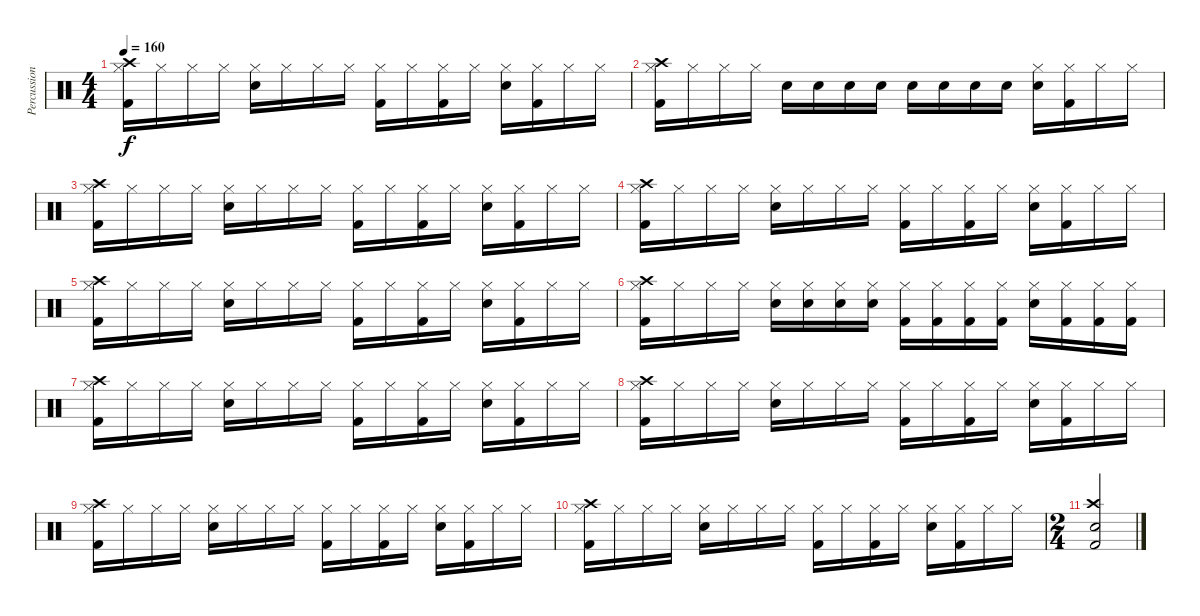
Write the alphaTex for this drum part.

\track ("Percussion" "Percussion") {instrument percussion}
\staff {score}
\articulation defaults
\ts (4 4)
\tempo 160
\clef neutral
\ks c
("Kick (hit) 2" "Hi-Hat (closed)" "Crash high (hit)").16{dy f} "Hi-Hat (closed)".16 "Hi-Hat (closed)".16 "Hi-Hat (closed)".16 ("Electric Snare (hit)" "Hi-Hat (closed)").16 "Hi-Hat (closed)".16 "Hi-Hat (closed)".16 "Hi-Hat (closed)".16 ("Kick (hit) 2" "Hi-Hat (closed)").16 "Hi-Hat (closed)".16 ("Kick (hit) 2" "Hi-Hat (closed)").16 "Hi-Hat (closed)".16 ("Electric Snare (hit)" "Hi-Hat (closed)").16 ("Kick (hit) 2" "Hi-Hat (closed)").16 "Hi-Hat (closed)".16 "Hi-Hat (closed)".16 |
("Kick (hit) 2" "Hi-Hat (closed)" "Crash high (hit)").16 "Hi-Hat (closed)".16 "Hi-Hat (closed)".16 "Hi-Hat (closed)".16 "Electric Snare (hit)".16 "Electric Snare (hit)".16 "Electric Snare (hit)".16 "Electric Snare (hit)".16 "Electric Snare (hit)".16 "Electric Snare (hit)".16 "Electric Snare (hit)".16 "Electric Snare (hit)".16 ("Electric Snare (hit)" "Hi-Hat (closed)").16 ("Kick (hit) 2" "Hi-Hat (closed)").16 "Hi-Hat (closed)".16 "Hi-Hat (closed)".16 |
("Kick (hit) 2" "Hi-Hat (closed)" "Crash high (hit)").16 "Hi-Hat (closed)".16 "Hi-Hat (closed)".16 "Hi-Hat (closed)".16 ("Electric Snare (hit)" "Hi-Hat (closed)").16 "Hi-Hat (closed)".16 "Hi-Hat (closed)".16 "Hi-Hat (closed)".16 ("Kick (hit) 2" "Hi-Hat (closed)").16 "Hi-Hat (closed)".16 ("Kick (hit) 2" "Hi-Hat (closed)").16 "Hi-Hat (closed)".16 ("Electric Snare (hit)" "Hi-Hat (closed)").16 ("Kick (hit) 2" "Hi-Hat (closed)").16 "Hi-Hat (closed)".16 "Hi-Hat (closed)".16 |
("Kick (hit) 2" "Hi-Hat (closed)" "Crash high (hit)").16 "Hi-Hat (closed)".16 "Hi-Hat (closed)".16 "Hi-Hat (closed)".16 ("Electric Snare (hit)" "Hi-Hat (closed)").16 "Hi-Hat (closed)".16 "Hi-Hat (closed)".16 "Hi-Hat (closed)".16 ("Kick (hit) 2" "Hi-Hat (closed)").16 "Hi-Hat (closed)".16 ("Kick (hit) 2" "Hi-Hat (closed)").16 "Hi-Hat (closed)".16 ("Electric Snare (hit)" "Hi-Hat (closed)").16 ("Kick (hit) 2" "Hi-Hat (closed)").16 "Hi-Hat (closed)".16 "Hi-Hat (closed)".16 |
("Kick (hit) 2" "Hi-Hat (closed)" "Crash high (hit)").16 "Hi-Hat (closed)".16 "Hi-Hat (closed)".16 "Hi-Hat (closed)".16 ("Electric Snare (hit)" "Hi-Hat (closed)").16 "Hi-Hat (closed)".16 "Hi-Hat (closed)".16 "Hi-Hat (closed)".16 ("Kick (hit) 2" "Hi-Hat (closed)").16 "Hi-Hat (closed)".16 ("Kick (hit) 2" "Hi-Hat (closed)").16 "Hi-Hat (closed)".16 ("Electric Snare (hit)" "Hi-Hat (closed)").16 ("Kick (hit) 2" "Hi-Hat (closed)").16 "Hi-Hat (closed)".16 "Hi-Hat (closed)".16 |
("Kick (hit) 2" "Hi-Hat (closed)" "Crash high (hit)").16 "Hi-Hat (closed)".16 "Hi-Hat (closed)".16 "Hi-Hat (closed)".16 ("Electric Snare (hit)" "Hi-Hat (closed)").16 ("Electric Snare (hit)" "Hi-Hat (closed)").16 ("Electric Snare (hit)" "Hi-Hat (closed)").16 ("Electric Snare (hit)" "Hi-Hat (closed)").16 ("Kick (hit) 2" "Hi-Hat (closed)").16 ("Kick (hit) 2" "Hi-Hat (closed)").16 ("Kick (hit) 2" "Hi-Hat (closed)").16 ("Kick (hit) 2" "Hi-Hat (closed)").16 ("Electric Snare (hit)" "Hi-Hat (closed)").16 ("Kick (hit) 2" "Hi-Hat (closed)").16 ("Kick (hit) 2" "Hi-Hat (closed)").16 ("Kick (hit) 2" "Hi-Hat (closed)").16 |
("Kick (hit) 2" "Hi-Hat (closed)" "Crash high (hit)").16 "Hi-Hat (closed)".16 "Hi-Hat (closed)".16 "Hi-Hat (closed)".16 ("Electric Snare (hit)" "Hi-Hat (closed)").16 "Hi-Hat (closed)".16 "Hi-Hat (closed)".16 "Hi-Hat (closed)".16 ("Kick (hit) 2" "Hi-Hat (closed)").16 "Hi-Hat (closed)".16 ("Kick (hit) 2" "Hi-Hat (closed)").16 "Hi-Hat (closed)".16 ("Electric Snare (hit)" "Hi-Hat (closed)").16 ("Kick (hit) 2" "Hi-Hat (closed)").16 "Hi-Hat (closed)".16 "Hi-Hat (closed)".16 |
("Kick (hit) 2" "Hi-Hat (closed)" "Crash high (hit)").16 "Hi-Hat (closed)".16 "Hi-Hat (closed)".16 "Hi-Hat (closed)".16 ("Electric Snare (hit)" "Hi-Hat (closed)").16 "Hi-Hat (closed)".16 "Hi-Hat (closed)".16 "Hi-Hat (closed)".16 ("Kick (hit) 2" "Hi-Hat (closed)").16 "Hi-Hat (closed)".16 ("Kick (hit) 2" "Hi-Hat (closed)").16 "Hi-Hat (closed)".16 ("Electric Snare (hit)" "Hi-Hat (closed)").16 ("Kick (hit) 2" "Hi-Hat (closed)").16 "Hi-Hat (closed)".16 "Hi-Hat (closed)".16 |
("Kick (hit) 2" "Hi-Hat (closed)" "Crash high (hit)").16 "Hi-Hat (closed)".16 "Hi-Hat (closed)".16 "Hi-Hat (closed)".16 ("Electric Snare (hit)" "Hi-Hat (closed)").16 "Hi-Hat (closed)".16 "Hi-Hat (closed)".16 "Hi-Hat (closed)".16 ("Kick (hit) 2" "Hi-Hat (closed)").16 "Hi-Hat (closed)".16 ("Kick (hit) 2" "Hi-Hat (closed)").16 "Hi-Hat (closed)".16 ("Electric Snare (hit)" "Hi-Hat (closed)").16 ("Kick (hit) 2" "Hi-Hat (closed)").16 "Hi-Hat (closed)".16 "Hi-Hat (closed)".16 |
("Kick (hit) 2" "Hi-Hat (closed)" "Crash high (hit)").16 "Hi-Hat (closed)".16 "Hi-Hat (closed)".16 "Hi-Hat (closed)".16 ("Electric Snare (hit)" "Hi-Hat (closed)").16 "Hi-Hat (closed)".16 "Hi-Hat (closed)".16 "Hi-Hat (closed)".16 ("Kick (hit) 2" "Hi-Hat (closed)").16 "Hi-Hat (closed)".16 ("Kick (hit) 2" "Hi-Hat (closed)").16 "Hi-Hat (closed)".16 ("Electric Snare (hit)" "Hi-Hat (closed)").16 ("Kick (hit) 2" "Hi-Hat (closed)").16 "Hi-Hat (closed)".16 "Hi-Hat (closed)".16 |
\ts (2 4)
("Crash high (hit)" "Kick (hit) 2" "Electric Snare (hit)").2
